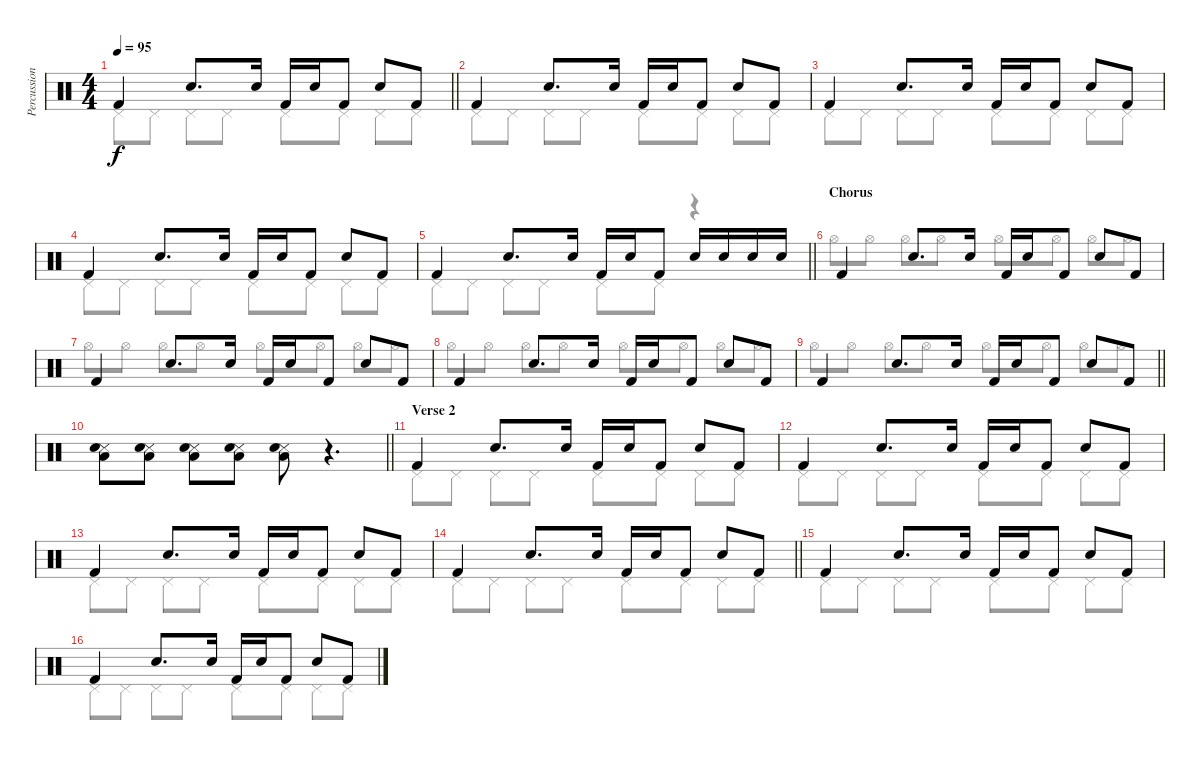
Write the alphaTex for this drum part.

\track ("Percussion" "Percussion") {instrument percussion}
\staff {score}
\articulation defaults
\voice
\ts (4 4)
\tempo 95
\clef neutral
\barLineRight lightlight
\ks c "Kick (hit) 2".4{dy f} "Snare (hit) 2".8{d} "Snare (hit) 2".16 "Kick (hit) 2".16 "Snare (hit) 2".16 "Kick (hit) 2".8 "Snare (hit) 2".8 "Kick (hit) 2".8
|
"Kick (hit) 2".4 "Snare (hit) 2".8{d} "Snare (hit) 2".16 "Kick (hit) 2".16 "Snare (hit) 2".16 "Kick (hit) 2".8 "Snare (hit) 2".8 "Kick (hit) 2".8 |
"Kick (hit) 2".4 "Snare (hit) 2".8{d} "Snare (hit) 2".16 "Kick (hit) 2".16 "Snare (hit) 2".16 "Kick (hit) 2".8 "Snare (hit) 2".8 "Kick (hit) 2".8 |
"Kick (hit) 2".4 "Snare (hit) 2".8{d} "Snare (hit) 2".16 "Kick (hit) 2".16 "Snare (hit) 2".16 "Kick (hit) 2".8 "Snare (hit) 2".8 "Kick (hit) 2".8 |
\barLineRight lightlight "Kick (hit) 2".4 "Snare (hit) 2".8{d} "Snare (hit) 2".16 "Kick (hit) 2".16 "Snare (hit) 2".16 "Kick (hit) 2".8 "Snare (hit) 2".16 "Snare (hit) 2".16 "Snare (hit) 2".16 "Snare (hit) 2".16
|
\section ("" "Chorus")
"Kick (hit) 2".4 "Snare (hit) 2".8{d} "Snare (hit) 2".16 "Kick (hit) 2".16 "Snare (hit) 2".16 "Kick (hit) 2".8 "Snare (hit) 2".8 "Kick (hit) 2".8 |
"Kick (hit) 2".4 "Snare (hit) 2".8{d} "Snare (hit) 2".16 "Kick (hit) 2".16 "Snare (hit) 2".16 "Kick (hit) 2".8 "Snare (hit) 2".8 "Kick (hit) 2".8 |
"Kick (hit) 2".4 "Snare (hit) 2".8{d} "Snare (hit) 2".16 "Kick (hit) 2".16 "Snare (hit) 2".16 "Kick (hit) 2".8 "Snare (hit) 2".8 "Kick (hit) 2".8 |
\barLineRight lightlight "Kick (hit) 2".4 "Snare (hit) 2".8{d} "Snare (hit) 2".16 "Kick (hit) 2".16 "Snare (hit) 2".16 "Kick (hit) 2".8 "Snare (hit) 2".8 "Kick (hit) 2".8
|
\barLineRight lightlight
("Snare (side stick) 3" "Snare (hit) 2" "Low Floor Tom (hit)").8 ("Snare (side stick) 3" "Snare (hit) 2" "Low Floor Tom (hit)").8 ("Snare (side stick) 3" "Snare (hit) 2" "Low Floor Tom (hit)").8 ("Snare (side stick) 3" "Snare (hit) 2" "Low Floor Tom (hit)").8 ("Snare (side stick) 3" "Snare (hit) 2" "Low Floor Tom (hit)").8 r.4{d} |
\section ("" "Verse 2")
"Kick (hit) 2".4 "Snare (hit) 2".8{d} "Snare (hit) 2".16 "Kick (hit) 2".16 "Snare (hit) 2".16 "Kick (hit) 2".8 "Snare (hit) 2".8 "Kick (hit) 2".8 |
"Kick (hit) 2".4 "Snare (hit) 2".8{d} "Snare (hit) 2".16 "Kick (hit) 2".16 "Snare (hit) 2".16 "Kick (hit) 2".8 "Snare (hit) 2".8 "Kick (hit) 2".8 |
"Kick (hit) 2".4 "Snare (hit) 2".8{d} "Snare (hit) 2".16 "Kick (hit) 2".16 "Snare (hit) 2".16 "Kick (hit) 2".8 "Snare (hit) 2".8 "Kick (hit) 2".8 |
\barLineRight lightlight "Kick (hit) 2".4 "Snare (hit) 2".8{d} "Snare (hit) 2".16 "Kick (hit) 2".16 "Snare (hit) 2".16 "Kick (hit) 2".8 "Snare (hit) 2".8 "Kick (hit) 2".8
|
"Kick (hit) 2".4 "Snare (hit) 2".8{d} "Snare (hit) 2".16 "Kick (hit) 2".16 "Snare (hit) 2".16 "Kick (hit) 2".8 "Snare (hit) 2".8 "Kick (hit) 2".8 |
"Kick (hit) 2".4 "Snare (hit) 2".8{d} "Snare (hit) 2".16 "Kick (hit) 2".16 "Snare (hit) 2".16 "Kick (hit) 2".8 "Snare (hit) 2".8 "Kick (hit) 2".8
\voice
\clef neutral
\ottava regular
\simile none
\barLineRight lightlight
\ks c "Pedal Hi-Hat (hit)".8{dy f} "Pedal Hi-Hat (hit)".8 "Pedal Hi-Hat (hit)".8 "Pedal Hi-Hat (hit)".8 "Pedal Hi-Hat (hit)".8 "Pedal Hi-Hat (hit)".8 "Pedal Hi-Hat (hit)".8 "Pedal Hi-Hat (hit)".8
|
"Pedal Hi-Hat (hit)".8 "Pedal Hi-Hat (hit)".8 "Pedal Hi-Hat (hit)".8 "Pedal Hi-Hat (hit)".8 "Pedal Hi-Hat (hit)".8 "Pedal Hi-Hat (hit)".8 "Pedal Hi-Hat (hit)".8 "Pedal Hi-Hat (hit)".8 |
"Pedal Hi-Hat (hit)".8 "Pedal Hi-Hat (hit)".8 "Pedal Hi-Hat (hit)".8 "Pedal Hi-Hat (hit)".8 "Pedal Hi-Hat (hit)".8 "Pedal Hi-Hat (hit)".8 "Pedal Hi-Hat (hit)".8 "Pedal Hi-Hat (hit)".8 |
"Pedal Hi-Hat (hit)".8 "Pedal Hi-Hat (hit)".8 "Pedal Hi-Hat (hit)".8 "Pedal Hi-Hat (hit)".8 "Pedal Hi-Hat (hit)".8 "Pedal Hi-Hat (hit)".8 "Pedal Hi-Hat (hit)".8 "Pedal Hi-Hat (hit)".8 |
\barLineRight lightlight "Pedal Hi-Hat (hit)".8 "Pedal Hi-Hat (hit)".8 "Pedal Hi-Hat (hit)".8 "Pedal Hi-Hat (hit)".8 "Pedal Hi-Hat (hit)".8 "Pedal Hi-Hat (hit)".8
r.4 |
"Hi-Hat (open)".8 "Hi-Hat (open)".8 "Hi-Hat (open)".8 "Hi-Hat (open)".8 "Hi-Hat (open)".8 "Hi-Hat (open)".8 "Hi-Hat (open)".8 "Hi-Hat (open)".8 |
"Hi-Hat (open)".8 "Hi-Hat (open)".8 "Hi-Hat (open)".8 "Hi-Hat (open)".8 "Hi-Hat (open)".8 "Hi-Hat (open)".8 "Hi-Hat (open)".8 "Hi-Hat (open)".8 |
"Hi-Hat (open)".8 "Hi-Hat (open)".8 "Hi-Hat (open)".8 "Hi-Hat (open)".8 "Hi-Hat (open)".8 "Hi-Hat (open)".8 "Hi-Hat (open)".8 "Hi-Hat (open)".8 |
\barLineRight lightlight "Hi-Hat (open)".8 "Hi-Hat (open)".8 "Hi-Hat (open)".8 "Hi-Hat (open)".8 "Hi-Hat (open)".8 "Hi-Hat (open)".8 "Hi-Hat (open)".8 "Hi-Hat (open)".8
|
\barLineRight lightlight
|
"Pedal Hi-Hat (hit)".8 "Pedal Hi-Hat (hit)".8 "Pedal Hi-Hat (hit)".8 "Pedal Hi-Hat (hit)".8 "Pedal Hi-Hat (hit)".8 "Pedal Hi-Hat (hit)".8 "Pedal Hi-Hat (hit)".8 "Pedal Hi-Hat (hit)".8 |
"Pedal Hi-Hat (hit)".8 "Pedal Hi-Hat (hit)".8 "Pedal Hi-Hat (hit)".8 "Pedal Hi-Hat (hit)".8 "Pedal Hi-Hat (hit)".8 "Pedal Hi-Hat (hit)".8 "Pedal Hi-Hat (hit)".8 "Pedal Hi-Hat (hit)".8 |
"Pedal Hi-Hat (hit)".8 "Pedal Hi-Hat (hit)".8 "Pedal Hi-Hat (hit)".8 "Pedal Hi-Hat (hit)".8 "Pedal Hi-Hat (hit)".8 "Pedal Hi-Hat (hit)".8 "Pedal Hi-Hat (hit)".8 "Pedal Hi-Hat (hit)".8 |
\barLineRight lightlight "Pedal Hi-Hat (hit)".8 "Pedal Hi-Hat (hit)".8 "Pedal Hi-Hat (hit)".8 "Pedal Hi-Hat (hit)".8 "Pedal Hi-Hat (hit)".8 "Pedal Hi-Hat (hit)".8 "Pedal Hi-Hat (hit)".8 "Pedal Hi-Hat (hit)".8
|
"Pedal Hi-Hat (hit)".8 "Pedal Hi-Hat (hit)".8 "Pedal Hi-Hat (hit)".8 "Pedal Hi-Hat (hit)".8 "Pedal Hi-Hat (hit)".8 "Pedal Hi-Hat (hit)".8 "Pedal Hi-Hat (hit)".8 "Pedal Hi-Hat (hit)".8 |
"Pedal Hi-Hat (hit)".8 "Pedal Hi-Hat (hit)".8 "Pedal Hi-Hat (hit)".8 "Pedal Hi-Hat (hit)".8 "Pedal Hi-Hat (hit)".8 "Pedal Hi-Hat (hit)".8 "Pedal Hi-Hat (hit)".8 "Pedal Hi-Hat (hit)".8
